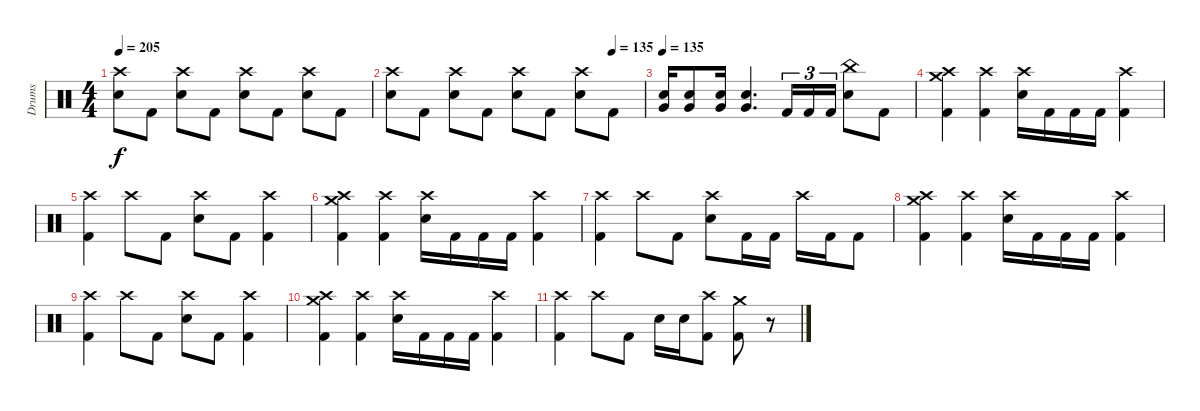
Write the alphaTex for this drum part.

\track ("Drums" "Drums") {instrument percussion}
\staff {score}
\articulation defaults
\ts (4 4)
\tempo 205
\clef neutral
\ks c
("Crash high (hit)" "Electric Snare (hit)").8{dy f} "Kick (hit) 2".8 ("Crash high (hit)" "Electric Snare (hit)").8 "Kick (hit) 2".8 ("Crash high (hit)" "Electric Snare (hit)").8 "Kick (hit) 2".8 ("Crash high (hit)" "Electric Snare (hit)").8 "Kick (hit) 2".8 |
\tempo (135 0.875)
("Crash high (hit)" "Electric Snare (hit)").8 "Kick (hit) 2".8 ("Crash high (hit)" "Electric Snare (hit)").8 "Kick (hit) 2".8 ("Crash high (hit)" "Electric Snare (hit)").8 "Kick (hit) 2".8 ("Crash high (hit)" "Electric Snare (hit)").8 "Kick (hit) 2".8 |
\tempo 135
("Very Low Tom (hit)" "Electric Snare (hit)").16 ("Very Low Tom (hit)" "Electric Snare (hit)").8 ("Very Low Tom (hit)" "Electric Snare (hit)").16 ("Very Low Tom (hit)" "Electric Snare (hit)").4{d} "Kick (hit) 2".16{tu (3 2)} "Kick (hit) 2".16{tu (3 2)} "Kick (hit) 2".16{tu (3 2)} ("China (hit)" "Electric Snare (hit)").8 "Kick (hit) 2".8 |
("Crash high (hit)" "Crash medium (hit)" "Kick (hit) 2").4 ("Crash high (hit)" "Kick (hit) 2").4 ("Crash high (hit)" "Electric Snare (hit)").16 "Kick (hit) 2".16 "Kick (hit) 2".16 "Kick (hit) 2".16 ("Crash high (hit)" "Kick (hit) 2").4 |
("Crash high (hit)" "Kick (hit) 2").4 "Crash high (hit)".8 "Kick (hit) 2".8 ("Crash high (hit)" "Electric Snare (hit)").8 "Kick (hit) 2".8 ("Crash high (hit)" "Kick (hit) 2").4 |
("Crash high (hit)" "Crash medium (hit)" "Kick (hit) 2").4 ("Crash high (hit)" "Kick (hit) 2").4 ("Crash high (hit)" "Electric Snare (hit)").16 "Kick (hit) 2".16 "Kick (hit) 2".16 "Kick (hit) 2".16 ("Crash high (hit)" "Kick (hit) 2").4 |
("Crash high (hit)" "Kick (hit) 2").4 "Crash high (hit)".8 "Kick (hit) 2".8 ("Crash high (hit)" "Electric Snare (hit)").8 "Kick (hit) 2".16 "Kick (hit) 2".16 "Crash high (hit)".16 "Kick (hit) 2".16 "Kick (hit) 2".8 |
("Crash high (hit)" "Crash medium (hit)" "Kick (hit) 2").4 ("Crash high (hit)" "Kick (hit) 2").4 ("Crash high (hit)" "Electric Snare (hit)").16 "Kick (hit) 2".16 "Kick (hit) 2".16 "Kick (hit) 2".16 ("Crash high (hit)" "Kick (hit) 2").4 |
("Crash high (hit)" "Kick (hit) 2").4 "Crash high (hit)".8 "Kick (hit) 2".8 ("Crash high (hit)" "Electric Snare (hit)").8 "Kick (hit) 2".8 ("Crash high (hit)" "Kick (hit) 2").4 |
("Crash high (hit)" "Crash medium (hit)" "Kick (hit) 2").4 ("Crash high (hit)" "Kick (hit) 2").4 ("Crash high (hit)" "Electric Snare (hit)").16 "Kick (hit) 2".16 "Kick (hit) 2".16 "Kick (hit) 2".16 ("Crash high (hit)" "Kick (hit) 2").4 |
("Crash high (hit)" "Kick (hit) 2").4 "Crash high (hit)".8 "Kick (hit) 2".8 "Electric Snare (hit)".16 "Electric Snare (hit)".16 ("Crash high (hit)" "Kick (hit) 2").8 ("Crash medium (hit)" "Kick (hit) 2").8 r.8
